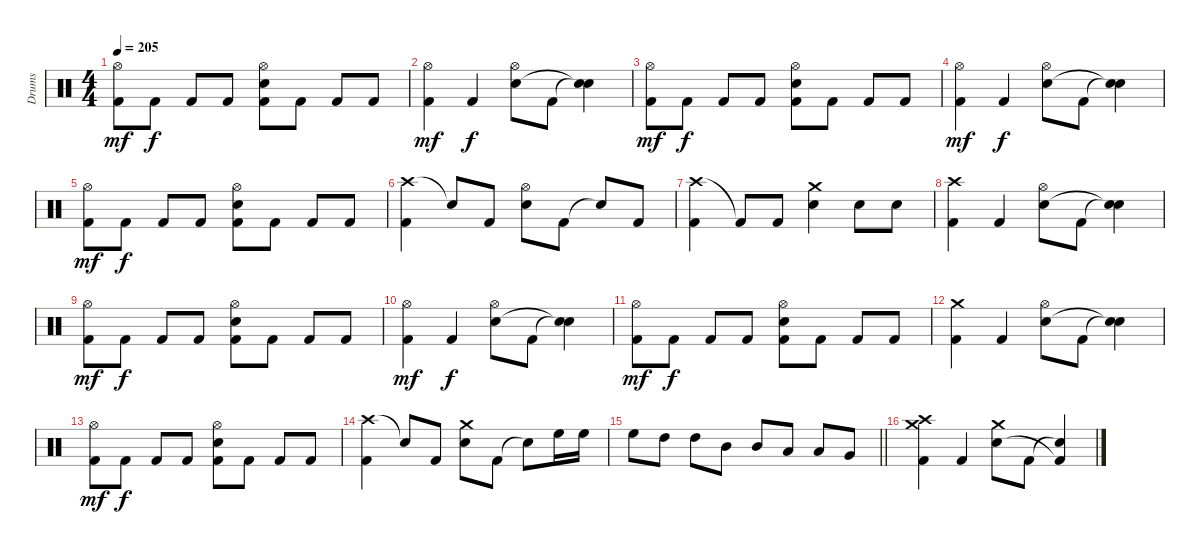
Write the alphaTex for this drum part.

\track ("Drums" "Drums") {instrument percussion}
\staff {score}
\articulation defaults
\ts (4 4)
\tempo 205
\clef neutral
\ks c
("Hi-Hat (open)" "Kick (hit) 2").8{dy mf} "Kick (hit) 2".8{dy f} "Kick (hit) 2".8 "Kick (hit) 2".8 ("Hi-Hat (open)" "Electric Snare (hit)" "Kick (hit) 2").8 "Kick (hit) 2".8 "Kick (hit) 2".8 "Kick (hit) 2".8 |
("Hi-Hat (open)" "Kick (hit) 2").4{dy mf} "Kick (hit) 2".4{dy f} ("Hi-Hat (open)" "Electric Snare (hit)").8 "Kick (hit) 2".8 ("Snare (hit)"{t} "Snare (hit)"{t}).4 |
("Hi-Hat (open)" "Kick (hit) 2").8{dy mf} "Kick (hit) 2".8{dy f} "Kick (hit) 2".8 "Kick (hit) 2".8 ("Hi-Hat (open)" "Electric Snare (hit)" "Kick (hit) 2").8 "Kick (hit) 2".8 "Kick (hit) 2".8 "Kick (hit) 2".8 |
("Hi-Hat (open)" "Kick (hit) 2").4{dy mf} "Kick (hit) 2".4{dy f} ("Hi-Hat (open)" "Electric Snare (hit)").8 "Kick (hit) 2".8 ("Snare (hit)"{t} "Snare (hit)"{t}).4 |
("Hi-Hat (open)" "Kick (hit) 2").8{dy mf} "Kick (hit) 2".8{dy f} "Kick (hit) 2".8 "Kick (hit) 2".8 ("Hi-Hat (open)" "Electric Snare (hit)" "Kick (hit) 2").8 "Kick (hit) 2".8 "Kick (hit) 2".8 "Kick (hit) 2".8 |
("Crash high (hit)" "Kick (hit) 2").4 "Snare (hit)"{t}.8 "Kick (hit) 2".8 ("Hi-Hat (open)" "Electric Snare (hit)").8 "Kick (hit) 2".8 "Snare (hit)"{t}.8 "Kick (hit) 2".8 |
("Crash high (hit)" "Kick (hit) 2").4 "Kick (hit) 2"{t}.8 "Kick (hit) 2".8 ("Crash medium (hit)" "Electric Snare (hit)").4 "Electric Snare (hit)".8 "Electric Snare (hit)".8 |
("Crash high (hit)" "Kick (hit) 2").4 "Kick (hit) 2".4 ("Hi-Hat (open)" "Electric Snare (hit)").8 "Kick (hit) 2".8 ("Snare (hit)"{t} "Snare (hit)"{t}).4 |
("Hi-Hat (open)" "Kick (hit) 2").8{dy mf} "Kick (hit) 2".8{dy f} "Kick (hit) 2".8 "Kick (hit) 2".8 ("Hi-Hat (open)" "Electric Snare (hit)" "Kick (hit) 2").8 "Kick (hit) 2".8 "Kick (hit) 2".8 "Kick (hit) 2".8 |
("Hi-Hat (open)" "Kick (hit) 2").4{dy mf} "Kick (hit) 2".4{dy f} ("Hi-Hat (open)" "Electric Snare (hit)").8 "Kick (hit) 2".8 ("Snare (hit)"{t} "Snare (hit)"{t}).4 |
("Hi-Hat (open)" "Kick (hit) 2").8{dy mf} "Kick (hit) 2".8{dy f} "Kick (hit) 2".8 "Kick (hit) 2".8 ("Hi-Hat (open)" "Electric Snare (hit)" "Kick (hit) 2").8 "Kick (hit) 2".8 "Kick (hit) 2".8 "Kick (hit) 2".8 |
("Crash medium (hit)" "Kick (hit) 2").4 "Kick (hit) 2".4 ("Hi-Hat (open)" "Electric Snare (hit)").8 "Kick (hit) 2".8 ("Snare (hit)"{t} "Snare (hit)"{t}).4 |
("Hi-Hat (open)" "Kick (hit) 2").8{dy mf} "Kick (hit) 2".8{dy f} "Kick (hit) 2".8 "Kick (hit) 2".8 ("Hi-Hat (open)" "Electric Snare (hit)" "Kick (hit) 2").8 "Kick (hit) 2".8 "Kick (hit) 2".8 "Kick (hit) 2".8 |
("Crash high (hit)" "Kick (hit) 2").4 "Snare (hit)"{t}.8 "Kick (hit) 2".8 ("Crash medium (hit)" "Electric Snare (hit)").8 "Kick (hit) 2".8 "Snare (hit)"{t}.8 "High Floor Tom (hit)".16 "High Floor Tom (hit)".16 |
\barLineRight lightlight "High Floor Tom (hit)".8 "High Tom (hit)".8 "High Tom (hit)".8 "Mid Tom (hit)".8 "Mid Tom (hit)".8 "Low Tom (hit)".8 "Low Tom (hit)".8 "Very Low Tom (hit)".8
|
("Crash high (hit)" "Crash medium (hit)" "Kick (hit) 2").4 "Kick (hit) 2".4 ("Crash medium (hit)" "Electric Snare (hit)").8 "Kick (hit) 2".8 ("Snare (hit)"{t} "Kick (hit) 2"{t}).4
